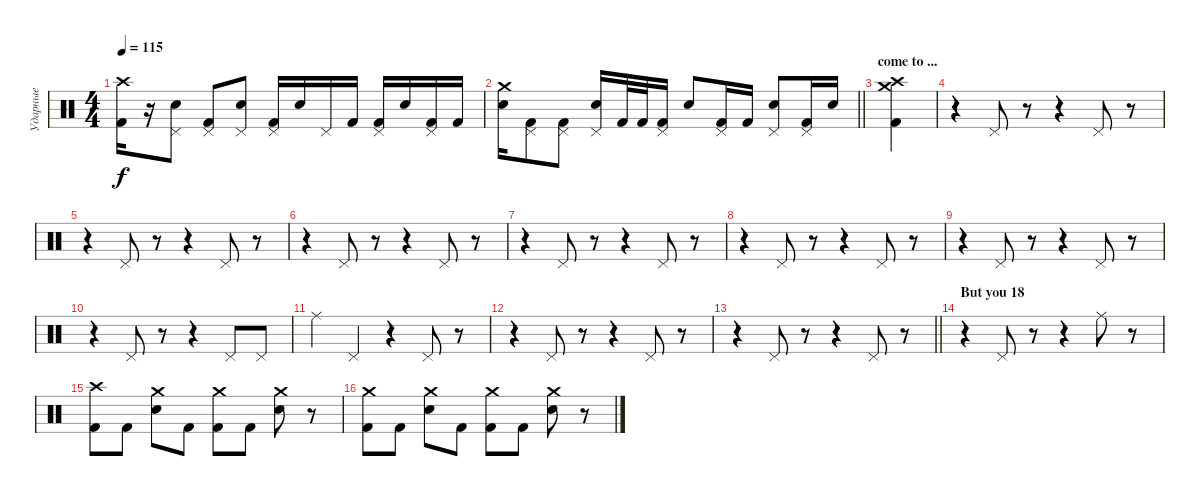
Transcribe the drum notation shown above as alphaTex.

\track ("Ударные" "Ударные") {instrument percussion}
\staff {score}
\articulation defaults
\ts (4 4)
\tempo 115
\clef neutral
\ks c
("Crash high (hit)" "Kick (hit) 2").16{dy f} r.16 ("Pedal Hi-Hat (hit)" "Electric Snare (hit)").8 ("Pedal Hi-Hat (hit)" "Kick (hit) 2").8 ("Pedal Hi-Hat (hit)" "Electric Snare (hit)").8 ("Pedal Hi-Hat (hit)" "Kick (hit) 2").16 "Electric Snare (hit)".16 "Pedal Hi-Hat (hit)".16 "Kick (hit) 2".16 ("Pedal Hi-Hat (hit)" "Kick (hit) 2").16 "Electric Snare (hit)".16 ("Pedal Hi-Hat (hit)" "Kick (hit) 2").16 "Kick (hit) 2".16 |
\barLineRight lightlight
("Crash medium (hit)" "Electric Snare (hit)").16 ("Pedal Hi-Hat (hit)" "Kick (hit) 2").8 ("Pedal Hi-Hat (hit)" "Kick (hit) 2").8 ("Pedal Hi-Hat (hit)" "Electric Snare (hit)").16 "Kick (hit) 2".32 "Kick (hit) 2".32 ("Pedal Hi-Hat (hit)" "Kick (hit) 2").16 "Electric Snare (hit)".8 ("Pedal Hi-Hat (hit)" "Kick (hit) 2").16 "Kick (hit) 2".16 ("Pedal Hi-Hat (hit)" "Electric Snare (hit)").8 ("Pedal Hi-Hat (hit)" "Kick (hit) 2").16 "Electric Snare (hit)".16 |
\section ("" "come to ...")
("Crash medium (hit)" "Crash high (hit)" "Kick (hit) 2").4 |
r.4 "Pedal Hi-Hat (hit)".8 r.8 r.4 "Pedal Hi-Hat (hit)".8 r.8 |
r.4 "Pedal Hi-Hat (hit)".8 r.8 r.4 "Pedal Hi-Hat (hit)".8 r.8 |
r.4 "Pedal Hi-Hat (hit)".8 r.8 r.4 "Pedal Hi-Hat (hit)".8 r.8 |
r.4 "Pedal Hi-Hat (hit)".8 r.8 r.4 "Pedal Hi-Hat (hit)".8 r.8 |
r.4 "Pedal Hi-Hat (hit)".8 r.8 r.4 "Pedal Hi-Hat (hit)".8 r.8 |
r.4 "Pedal Hi-Hat (hit)".8 r.8 r.4 "Pedal Hi-Hat (hit)".8 r.8 |
r.4 "Pedal Hi-Hat (hit)".8 r.8 r.4 "Pedal Hi-Hat (hit)".8 "Pedal Hi-Hat (hit)".8 |
"Ride (middle)".4 "Pedal Hi-Hat (hit)".4 r.4 "Pedal Hi-Hat (hit)".8 r.8 |
r.4 "Pedal Hi-Hat (hit)".8 r.8 r.4 "Pedal Hi-Hat (hit)".8 r.8 |
\barLineRight lightlight
r.4 "Pedal Hi-Hat (hit)".8 r.8 r.4 "Pedal Hi-Hat (hit)".8 r.8 |
\section ("" "But you 18")
r.4 "Pedal Hi-Hat (hit)".8 r.8 r.4 "Ride (middle)".8 r.8 |
("Crash high (hit)" "Kick (hit) 2").8 "Kick (hit) 2".8 ("Crash medium (hit)" "Electric Snare (hit)").8 "Kick (hit) 2".8 ("Crash medium (hit)" "Kick (hit) 2").8 "Kick (hit) 2".8 ("Crash medium (hit)" "Electric Snare (hit)").8 r.8 |
("Crash medium (hit)" "Kick (hit) 2").8 "Kick (hit) 2".8 ("Crash medium (hit)" "Electric Snare (hit)").8 "Kick (hit) 2".8 ("Crash medium (hit)" "Kick (hit) 2").8 "Kick (hit) 2".8 ("Crash medium (hit)" "Electric Snare (hit)").8 r.8
